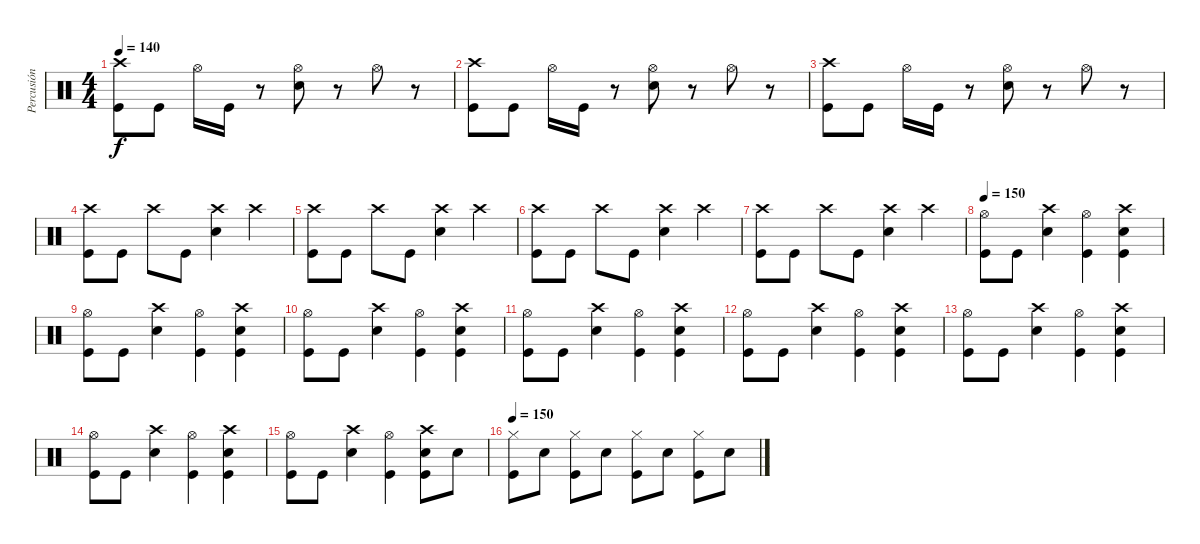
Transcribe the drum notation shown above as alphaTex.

\track ("Percusión  Gabriela" "Percusión ") {instrument percussion}
\staff {score}
\articulation defaults
\ts (4 4)
\tempo 140
\clef neutral
\ks c
("Crash high (hit)" "Kick (hit)").8{dy f} "Kick (hit)".8 "Hi-Hat (open)".16 "Kick (hit)".16 r.8 ("Snare (hit) 2" "Hi-Hat (open)").8 r.8 "Hi-Hat (open)".8 r.8 |
("Crash high (hit)" "Kick (hit)").8 "Kick (hit)".8 "Hi-Hat (open)".16 "Kick (hit)".16 r.8 ("Snare (hit) 2" "Hi-Hat (open)").8 r.8 "Hi-Hat (open)".8 r.8 |
("Crash high (hit)" "Kick (hit)").8 "Kick (hit)".8 "Hi-Hat (open)".16 "Kick (hit)".16 r.8 ("Snare (hit) 2" "Hi-Hat (open)").8 r.8 "Hi-Hat (open)".8 r.8 |
("Crash high (hit)" "Kick (hit)").8 "Kick (hit)".8 "Crash high (hit)".8 "Kick (hit)".8 ("Crash high (hit)" "Snare (hit) 2").4 "Crash high (hit)".4 |
("Crash high (hit)" "Kick (hit)").8 "Kick (hit)".8 "Crash high (hit)".8 "Kick (hit)".8 ("Crash high (hit)" "Snare (hit) 2").4 "Crash high (hit)".4 |
("Crash high (hit)" "Kick (hit)").8 "Kick (hit)".8 "Crash high (hit)".8 "Kick (hit)".8 ("Crash high (hit)" "Snare (hit) 2").4 "Crash high (hit)".4 |
("Crash high (hit)" "Kick (hit)").8 "Kick (hit)".8 "Crash high (hit)".8 "Kick (hit)".8 ("Crash high (hit)" "Snare (hit) 2").4 "Crash high (hit)".4 |
\tempo 150
("Hi-Hat (open)" "Kick (hit)").8 "Kick (hit)".8 ("Crash high (hit)" "Snare (hit) 2").4 ("Hi-Hat (open)" "Kick (hit)").4 ("Crash high (hit)" "Snare (hit) 2" "Kick (hit)").4 |
("Hi-Hat (open)" "Kick (hit)").8 "Kick (hit)".8 ("Crash high (hit)" "Snare (hit) 2").4 ("Hi-Hat (open)" "Kick (hit)").4 ("Crash high (hit)" "Snare (hit) 2" "Kick (hit)").4 |
("Hi-Hat (open)" "Kick (hit)").8 "Kick (hit)".8 ("Crash high (hit)" "Snare (hit) 2").4 ("Hi-Hat (open)" "Kick (hit)").4 ("Crash high (hit)" "Snare (hit) 2" "Kick (hit)").4 |
("Hi-Hat (open)" "Kick (hit)").8 "Kick (hit)".8 ("Crash high (hit)" "Snare (hit) 2").4 ("Hi-Hat (open)" "Kick (hit)").4 ("Crash high (hit)" "Snare (hit) 2" "Kick (hit)").4 |
("Hi-Hat (open)" "Kick (hit)").8 "Kick (hit)".8 ("Crash high (hit)" "Snare (hit) 2").4 ("Hi-Hat (open)" "Kick (hit)").4 ("Crash high (hit)" "Snare (hit) 2" "Kick (hit)").4 |
("Hi-Hat (open)" "Kick (hit)").8 "Kick (hit)".8 ("Crash high (hit)" "Snare (hit) 2").4 ("Hi-Hat (open)" "Kick (hit)").4 ("Crash high (hit)" "Snare (hit) 2" "Kick (hit)").4 |
("Hi-Hat (open)" "Kick (hit)").8 "Kick (hit)".8 ("Crash high (hit)" "Snare (hit) 2").4 ("Hi-Hat (open)" "Kick (hit)").4 ("Crash high (hit)" "Snare (hit) 2" "Kick (hit)").4 |
("Hi-Hat (open)" "Kick (hit)").8 "Kick (hit)".8 ("Crash high (hit)" "Snare (hit) 2").4 ("Hi-Hat (open)" "Kick (hit)").4 ("Crash high (hit)" "Snare (hit) 2" "Kick (hit)").8 "Snare (hit) 2".8 |
\tempo 150
("Hi-Hat (closed)" "Kick (hit)").8 "Snare (hit) 2".8 ("Hi-Hat (closed)" "Kick (hit)").8 "Snare (hit) 2".8 ("Hi-Hat (closed)" "Kick (hit)").8 "Snare (hit) 2".8 ("Hi-Hat (closed)" "Kick (hit)").8 "Snare (hit) 2".8
